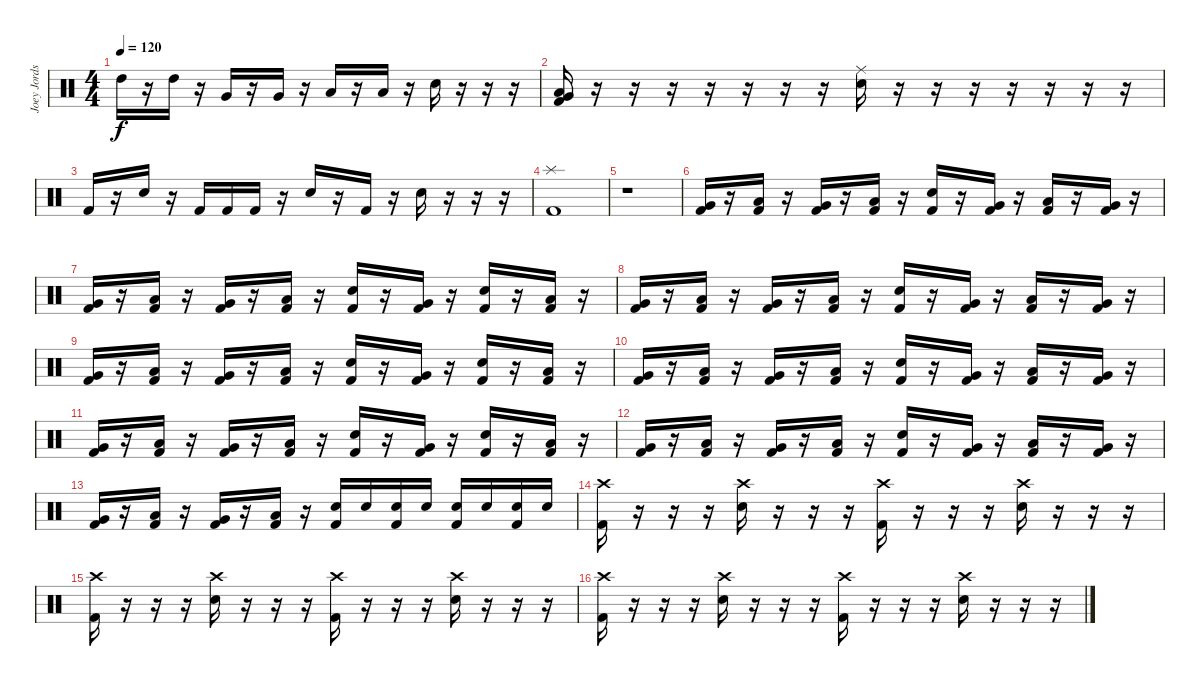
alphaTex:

\track ("Joey Jordson" "Joey Jords") {instrument percussion}
\staff {score}
\articulation defaults
\ts (4 4)
\tempo 120
\clef neutral
\ks c "High Tom (hit)".16{dy f}
r.16 "High Tom (hit)".16 r.16 "Very Low Tom (hit)".16 r.16 "Very Low Tom (hit)".16 r.16 "Low Tom (hit)".16 r.16 "Low Tom (hit)".16 r.16 "Electric Snare (hit)".16 r.16 r.16 r.16 |
("Very Low Tom (hit)" "Low Tom (hit)" "Kick (hit) 2").16 r.16 r.16 r.16 r.16 r.16 r.16 r.16 ("Ride (middle)" "Electric Snare (hit)").16 r.16 r.16 r.16 r.16 r.16 r.16 r.16 |
"Kick (hit) 2".16 r.16 "Electric Snare (hit)".16 r.16 "Kick (hit) 2".16 "Kick (hit) 2".16 "Kick (hit) 2".16 r.16 "Electric Snare (hit)".16 r.16 "Kick (hit) 2".16 r.16 "Electric Snare (hit)".16 r.16 r.16 r.16 |
("Splash (hit)" "Kick (hit) 2").1 |
r.1 |
("Very Low Tom (hit)" "Kick (hit) 2").16 r.16 ("Low Tom (hit)" "Kick (hit) 2").16 r.16 ("Very Low Tom (hit)" "Kick (hit) 2").16 r.16 ("Low Tom (hit)" "Kick (hit) 2").16 r.16 ("Electric Snare (hit)" "Kick (hit) 2").16 r.16 ("Very Low Tom (hit)" "Kick (hit) 2").16 r.16 ("Low Tom (hit)" "Kick (hit) 2").16 r.16 ("Very Low Tom (hit)" "Kick (hit) 2").16 r.16 |
("Very Low Tom (hit)" "Kick (hit) 2").16 r.16 ("Low Tom (hit)" "Kick (hit) 2").16 r.16 ("Very Low Tom (hit)" "Kick (hit) 2").16 r.16 ("Low Tom (hit)" "Kick (hit) 2").16 r.16 ("Electric Snare (hit)" "Kick (hit) 2").16 r.16 ("Very Low Tom (hit)" "Kick (hit) 2").16 r.16 ("Electric Snare (hit)" "Kick (hit) 2").16 r.16 ("Low Tom (hit)" "Kick (hit) 2").16 r.16 |
("Very Low Tom (hit)" "Kick (hit) 2").16 r.16 ("Low Tom (hit)" "Kick (hit) 2").16 r.16 ("Very Low Tom (hit)" "Kick (hit) 2").16 r.16 ("Low Tom (hit)" "Kick (hit) 2").16 r.16 ("Electric Snare (hit)" "Kick (hit) 2").16 r.16 ("Very Low Tom (hit)" "Kick (hit) 2").16 r.16 ("Low Tom (hit)" "Kick (hit) 2").16 r.16 ("Very Low Tom (hit)" "Kick (hit) 2").16 r.16 |
("Very Low Tom (hit)" "Kick (hit) 2").16 r.16 ("Low Tom (hit)" "Kick (hit) 2").16 r.16 ("Very Low Tom (hit)" "Kick (hit) 2").16 r.16 ("Low Tom (hit)" "Kick (hit) 2").16 r.16 ("Electric Snare (hit)" "Kick (hit) 2").16 r.16 ("Very Low Tom (hit)" "Kick (hit) 2").16 r.16 ("Electric Snare (hit)" "Kick (hit) 2").16 r.16 ("Low Tom (hit)" "Kick (hit) 2").16 r.16 |
("Very Low Tom (hit)" "Kick (hit) 2").16 r.16 ("Low Tom (hit)" "Kick (hit) 2").16 r.16 ("Very Low Tom (hit)" "Kick (hit) 2").16 r.16 ("Low Tom (hit)" "Kick (hit) 2").16 r.16 ("Electric Snare (hit)" "Kick (hit) 2").16 r.16 ("Very Low Tom (hit)" "Kick (hit) 2").16 r.16 ("Low Tom (hit)" "Kick (hit) 2").16 r.16 ("Very Low Tom (hit)" "Kick (hit) 2").16 r.16 |
("Very Low Tom (hit)" "Kick (hit) 2").16 r.16 ("Low Tom (hit)" "Kick (hit) 2").16 r.16 ("Very Low Tom (hit)" "Kick (hit) 2").16 r.16 ("Low Tom (hit)" "Kick (hit) 2").16 r.16 ("Electric Snare (hit)" "Kick (hit) 2").16 r.16 ("Very Low Tom (hit)" "Kick (hit) 2").16 r.16 ("Electric Snare (hit)" "Kick (hit) 2").16 r.16 ("Low Tom (hit)" "Kick (hit) 2").16 r.16 |
("Very Low Tom (hit)" "Kick (hit) 2").16 r.16 ("Low Tom (hit)" "Kick (hit) 2").16 r.16 ("Very Low Tom (hit)" "Kick (hit) 2").16 r.16 ("Low Tom (hit)" "Kick (hit) 2").16 r.16 ("Electric Snare (hit)" "Kick (hit) 2").16 r.16 ("Very Low Tom (hit)" "Kick (hit) 2").16 r.16 ("Low Tom (hit)" "Kick (hit) 2").16 r.16 ("Very Low Tom (hit)" "Kick (hit) 2").16 r.16 |
("Very Low Tom (hit)" "Kick (hit) 2").16 r.16 ("Low Tom (hit)" "Kick (hit) 2").16 r.16 ("Very Low Tom (hit)" "Kick (hit) 2").16 r.16 ("Low Tom (hit)" "Kick (hit) 2").16 r.16 ("Electric Snare (hit)" "Kick (hit) 2").16 "Electric Snare (hit)".16 ("Electric Snare (hit)" "Kick (hit) 2").16 "Electric Snare (hit)".16 ("Electric Snare (hit)" "Kick (hit) 2").16 "Electric Snare (hit)".16 ("Electric Snare (hit)" "Kick (hit) 2").16 "Electric Snare (hit)".16 |
("Crash high (hit)" "Kick (hit) 2").16 r.16 r.16 r.16 ("Crash high (hit)" "Electric Snare (hit)").16 r.16 r.16 r.16 ("Crash high (hit)" "Kick (hit) 2").16 r.16 r.16 r.16 ("Crash high (hit)" "Electric Snare (hit)").16 r.16 r.16 r.16 |
("Crash high (hit)" "Kick (hit) 2").16 r.16 r.16 r.16 ("Crash high (hit)" "Electric Snare (hit)").16 r.16 r.16 r.16 ("Crash high (hit)" "Kick (hit) 2").16 r.16 r.16 r.16 ("Crash high (hit)" "Electric Snare (hit)").16 r.16 r.16 r.16 |
("Crash high (hit)" "Kick (hit) 2").16 r.16 r.16 r.16 ("Crash high (hit)" "Electric Snare (hit)").16 r.16 r.16 r.16 ("Crash high (hit)" "Kick (hit) 2").16 r.16 r.16 r.16 ("Crash high (hit)" "Electric Snare (hit)").16 r.16 r.16 r.16
